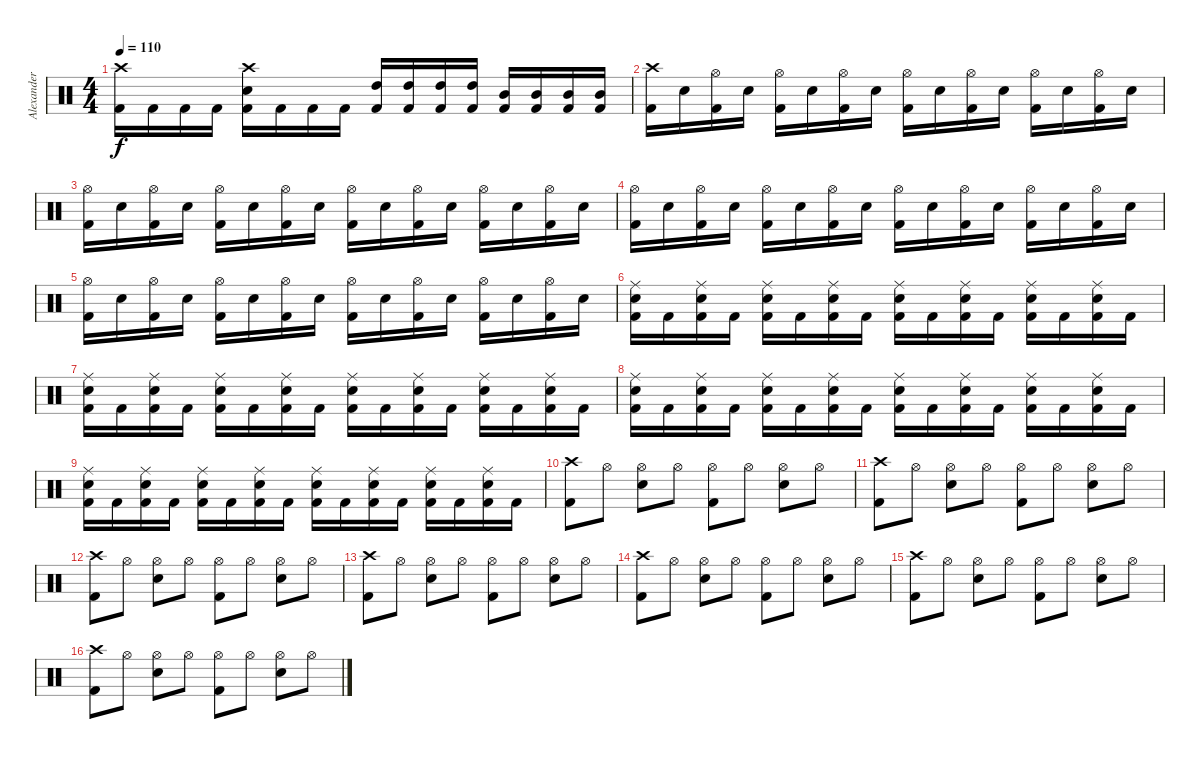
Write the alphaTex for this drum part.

\track ("Alexander C." "Alexander ") {instrument percussion}
\staff {score}
\articulation defaults
\ts (4 4)
\tempo 110
\clef neutral
\ks c
("Crash high (hit)" "Kick (hit) 2").16{dy f} "Kick (hit) 2".16 "Kick (hit) 2".16 "Kick (hit) 2".16 ("Crash high (hit)" "Snare (hit) 2" "Kick (hit) 2").16 "Kick (hit) 2".16 "Kick (hit) 2".16 "Kick (hit) 2".16 ("High Tom (hit)" "Kick (hit) 2").16 ("High Tom (hit)" "Kick (hit) 2").16 ("High Tom (hit)" "Kick (hit) 2").16 ("High Tom (hit)" "Kick (hit) 2").16 ("Mid Tom (hit)" "Kick (hit) 2").16 ("Mid Tom (hit)" "Kick (hit) 2").16 ("Mid Tom (hit)" "Kick (hit) 2").16 ("Mid Tom (hit)" "Kick (hit) 2").16 |
("Crash high (hit)" "Kick (hit) 2").16 "Snare (hit) 2".16 ("Hi-Hat (open)" "Kick (hit) 2").16 "Snare (hit) 2".16 ("Hi-Hat (open)" "Kick (hit) 2").16 "Snare (hit) 2".16 ("Hi-Hat (open)" "Kick (hit) 2").16 "Snare (hit) 2".16 ("Hi-Hat (open)" "Kick (hit) 2").16 "Snare (hit) 2".16 ("Hi-Hat (open)" "Kick (hit) 2").16 "Snare (hit) 2".16 ("Hi-Hat (open)" "Kick (hit) 2").16 "Snare (hit) 2".16 ("Hi-Hat (open)" "Kick (hit) 2").16 "Snare (hit) 2".16 |
("Hi-Hat (open)" "Kick (hit) 2").16 "Snare (hit) 2".16 ("Hi-Hat (open)" "Kick (hit) 2").16 "Snare (hit) 2".16 ("Hi-Hat (open)" "Kick (hit) 2").16 "Snare (hit) 2".16 ("Hi-Hat (open)" "Kick (hit) 2").16 "Snare (hit) 2".16 ("Hi-Hat (open)" "Kick (hit) 2").16 "Snare (hit) 2".16 ("Hi-Hat (open)" "Kick (hit) 2").16 "Snare (hit) 2".16 ("Hi-Hat (open)" "Kick (hit) 2").16 "Snare (hit) 2".16 ("Hi-Hat (open)" "Kick (hit) 2").16 "Snare (hit) 2".16 |
("Hi-Hat (open)" "Kick (hit) 2").16 "Snare (hit) 2".16 ("Hi-Hat (open)" "Kick (hit) 2").16 "Snare (hit) 2".16 ("Hi-Hat (open)" "Kick (hit) 2").16 "Snare (hit) 2".16 ("Hi-Hat (open)" "Kick (hit) 2").16 "Snare (hit) 2".16 ("Hi-Hat (open)" "Kick (hit) 2").16 "Snare (hit) 2".16 ("Hi-Hat (open)" "Kick (hit) 2").16 "Snare (hit) 2".16 ("Hi-Hat (open)" "Kick (hit) 2").16 "Snare (hit) 2".16 ("Hi-Hat (open)" "Kick (hit) 2").16 "Snare (hit) 2".16 |
("Hi-Hat (open)" "Kick (hit) 2").16 "Snare (hit) 2".16 ("Hi-Hat (open)" "Kick (hit) 2").16 "Snare (hit) 2".16 ("Hi-Hat (open)" "Kick (hit) 2").16 "Snare (hit) 2".16 ("Hi-Hat (open)" "Kick (hit) 2").16 "Snare (hit) 2".16 ("Hi-Hat (open)" "Kick (hit) 2").16 "Snare (hit) 2".16 ("Hi-Hat (open)" "Kick (hit) 2").16 "Snare (hit) 2".16 ("Hi-Hat (open)" "Kick (hit) 2").16 "Snare (hit) 2".16 ("Hi-Hat (open)" "Kick (hit) 2").16 "Snare (hit) 2".16 |
("Ride (middle)" "Snare (hit) 2" "Kick (hit) 2").16 "Kick (hit) 2".16 ("Ride (middle)" "Snare (hit) 2" "Kick (hit) 2").16 "Kick (hit) 2".16 ("Ride (middle)" "Snare (hit) 2" "Kick (hit) 2").16 "Kick (hit) 2".16 ("Ride (middle)" "Snare (hit) 2" "Kick (hit) 2").16 "Kick (hit) 2".16 ("Ride (middle)" "Snare (hit) 2" "Kick (hit) 2").16 "Kick (hit) 2".16 ("Ride (middle)" "Snare (hit) 2" "Kick (hit) 2").16 "Kick (hit) 2".16 ("Ride (middle)" "Snare (hit) 2" "Kick (hit) 2").16 "Kick (hit) 2".16 ("Ride (middle)" "Snare (hit) 2" "Kick (hit) 2").16 "Kick (hit) 2".16 |
("Ride (middle)" "Snare (hit) 2" "Kick (hit) 2").16 "Kick (hit) 2".16 ("Ride (middle)" "Snare (hit) 2" "Kick (hit) 2").16 "Kick (hit) 2".16 ("Ride (middle)" "Snare (hit) 2" "Kick (hit) 2").16 "Kick (hit) 2".16 ("Ride (middle)" "Snare (hit) 2" "Kick (hit) 2").16 "Kick (hit) 2".16 ("Ride (middle)" "Snare (hit) 2" "Kick (hit) 2").16 "Kick (hit) 2".16 ("Ride (middle)" "Snare (hit) 2" "Kick (hit) 2").16 "Kick (hit) 2".16 ("Ride (middle)" "Snare (hit) 2" "Kick (hit) 2").16 "Kick (hit) 2".16 ("Ride (middle)" "Snare (hit) 2" "Kick (hit) 2").16 "Kick (hit) 2".16 |
("Ride (middle)" "Snare (hit) 2" "Kick (hit) 2").16 "Kick (hit) 2".16 ("Ride (middle)" "Snare (hit) 2" "Kick (hit) 2").16 "Kick (hit) 2".16 ("Ride (middle)" "Snare (hit) 2" "Kick (hit) 2").16 "Kick (hit) 2".16 ("Ride (middle)" "Snare (hit) 2" "Kick (hit) 2").16 "Kick (hit) 2".16 ("Ride (middle)" "Snare (hit) 2" "Kick (hit) 2").16 "Kick (hit) 2".16 ("Ride (middle)" "Snare (hit) 2" "Kick (hit) 2").16 "Kick (hit) 2".16 ("Ride (middle)" "Snare (hit) 2" "Kick (hit) 2").16 "Kick (hit) 2".16 ("Ride (middle)" "Snare (hit) 2" "Kick (hit) 2").16 "Kick (hit) 2".16 |
("Ride (middle)" "Snare (hit) 2" "Kick (hit) 2").16 "Kick (hit) 2".16 ("Ride (middle)" "Snare (hit) 2" "Kick (hit) 2").16 "Kick (hit) 2".16 ("Ride (middle)" "Snare (hit) 2" "Kick (hit) 2").16 "Kick (hit) 2".16 ("Ride (middle)" "Snare (hit) 2" "Kick (hit) 2").16 "Kick (hit) 2".16 ("Ride (middle)" "Snare (hit) 2" "Kick (hit) 2").16 "Kick (hit) 2".16 ("Ride (middle)" "Snare (hit) 2" "Kick (hit) 2").16 "Kick (hit) 2".16 ("Ride (middle)" "Snare (hit) 2" "Kick (hit) 2").16 "Kick (hit) 2".16 ("Ride (middle)" "Snare (hit) 2" "Kick (hit) 2").16 "Kick (hit) 2".16 |
("Crash high (hit)" "Kick (hit) 2").8 "Hi-Hat (open)".8 ("Hi-Hat (open)" "Snare (hit) 2").8 "Hi-Hat (open)".8 ("Hi-Hat (open)" "Kick (hit) 2").8 "Hi-Hat (open)".8 ("Hi-Hat (open)" "Snare (hit) 2").8 "Hi-Hat (open)".8 |
("Crash high (hit)" "Kick (hit) 2").8 "Hi-Hat (open)".8 ("Hi-Hat (open)" "Snare (hit) 2").8 "Hi-Hat (open)".8 ("Hi-Hat (open)" "Kick (hit) 2").8 "Hi-Hat (open)".8 ("Hi-Hat (open)" "Snare (hit) 2").8 "Hi-Hat (open)".8 |
("Crash high (hit)" "Kick (hit) 2").8 "Hi-Hat (open)".8 ("Hi-Hat (open)" "Snare (hit) 2").8 "Hi-Hat (open)".8 ("Hi-Hat (open)" "Kick (hit) 2").8 "Hi-Hat (open)".8 ("Hi-Hat (open)" "Snare (hit) 2").8 "Hi-Hat (open)".8 |
("Crash high (hit)" "Kick (hit) 2").8 "Hi-Hat (open)".8 ("Hi-Hat (open)" "Snare (hit) 2").8 "Hi-Hat (open)".8 ("Hi-Hat (open)" "Kick (hit) 2").8 "Hi-Hat (open)".8 ("Hi-Hat (open)" "Snare (hit) 2").8 "Hi-Hat (open)".8 |
("Crash high (hit)" "Kick (hit) 2").8 "Hi-Hat (open)".8 ("Hi-Hat (open)" "Snare (hit) 2").8 "Hi-Hat (open)".8 ("Hi-Hat (open)" "Kick (hit) 2").8 "Hi-Hat (open)".8 ("Hi-Hat (open)" "Snare (hit) 2").8 "Hi-Hat (open)".8 |
("Crash high (hit)" "Kick (hit) 2").8 "Hi-Hat (open)".8 ("Hi-Hat (open)" "Snare (hit) 2").8 "Hi-Hat (open)".8 ("Hi-Hat (open)" "Kick (hit) 2").8 "Hi-Hat (open)".8 ("Hi-Hat (open)" "Snare (hit) 2").8 "Hi-Hat (open)".8 |
("Crash high (hit)" "Kick (hit) 2").8 "Hi-Hat (open)".8 ("Hi-Hat (open)" "Snare (hit) 2").8 "Hi-Hat (open)".8 ("Hi-Hat (open)" "Kick (hit) 2").8 "Hi-Hat (open)".8 ("Hi-Hat (open)" "Snare (hit) 2").8 "Hi-Hat (open)".8
